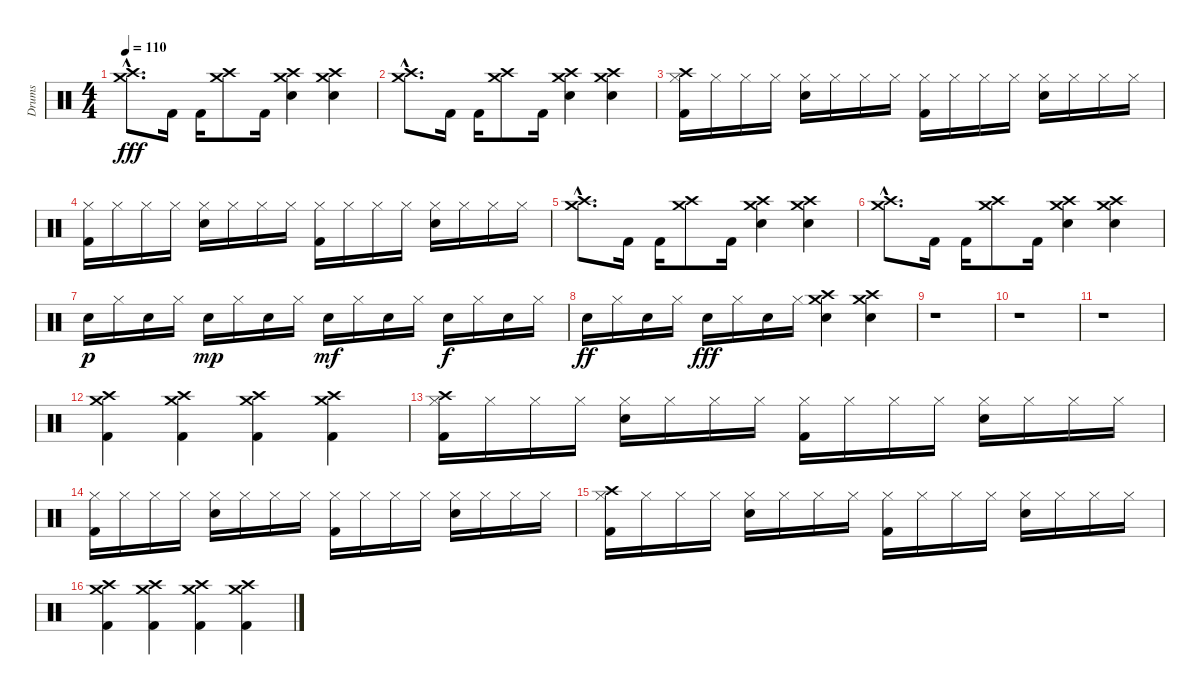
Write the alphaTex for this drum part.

\track ("Drums" "Drums") {instrument percussion}
\staff {score}
\articulation defaults
\ts (4 4)
\tempo 110
\clef neutral
\ks c
("Crash high (hit)"{hac} "Crash medium (hit)"{hac}).8{d dy fff} "Kick (hit) 2".16 "Kick (hit) 2".16 ("Crash high (hit)" "Crash medium (hit)").8 "Kick (hit) 2".16 ("Crash high (hit)" "Crash medium (hit)" "Electric Snare (hit)").4 ("Crash high (hit)" "Crash medium (hit)" "Electric Snare (hit)").4 |
("Crash high (hit)"{hac} "Crash medium (hit)"{hac}).8{d} "Kick (hit) 2".16 "Kick (hit) 2".16 ("Crash high (hit)" "Crash medium (hit)").8 "Kick (hit) 2".16 ("Crash high (hit)" "Crash medium (hit)" "Electric Snare (hit)").4 ("Crash high (hit)" "Crash medium (hit)" "Electric Snare (hit)").4 |
("Crash high (hit)" "Hi-Hat (closed)" "Kick (hit) 2").16 "Hi-Hat (closed)".16 "Hi-Hat (closed)".16 "Hi-Hat (closed)".16 ("Hi-Hat (closed)" "Electric Snare (hit)").16 "Hi-Hat (closed)".16 "Hi-Hat (closed)".16 "Hi-Hat (closed)".16 ("Hi-Hat (closed)" "Kick (hit) 2").16 "Hi-Hat (closed)".16 "Hi-Hat (closed)".16 "Hi-Hat (closed)".16 ("Hi-Hat (closed)" "Electric Snare (hit)").16 "Hi-Hat (closed)".16 "Hi-Hat (closed)".16 "Hi-Hat (closed)".16 |
("Hi-Hat (closed)" "Kick (hit) 2").16 "Hi-Hat (closed)".16 "Hi-Hat (closed)".16 "Hi-Hat (closed)".16 ("Hi-Hat (closed)" "Electric Snare (hit)").16 "Hi-Hat (closed)".16 "Hi-Hat (closed)".16 "Hi-Hat (closed)".16 ("Hi-Hat (closed)" "Kick (hit) 2").16 "Hi-Hat (closed)".16 "Hi-Hat (closed)".16 "Hi-Hat (closed)".16 ("Hi-Hat (closed)" "Electric Snare (hit)").16 "Hi-Hat (closed)".16 "Hi-Hat (closed)".16 "Hi-Hat (closed)".16 |
("Crash high (hit)"{hac} "Crash medium (hit)"{hac}).8{d} "Kick (hit) 2".16 "Kick (hit) 2".16 ("Crash high (hit)" "Crash medium (hit)").8 "Kick (hit) 2".16 ("Crash high (hit)" "Crash medium (hit)" "Electric Snare (hit)").4 ("Crash high (hit)" "Crash medium (hit)" "Electric Snare (hit)").4 |
("Crash high (hit)"{hac} "Crash medium (hit)"{hac}).8{d} "Kick (hit) 2".16 "Kick (hit) 2".16 ("Crash high (hit)" "Crash medium (hit)").8 "Kick (hit) 2".16 ("Crash high (hit)" "Crash medium (hit)" "Electric Snare (hit)").4 ("Crash high (hit)" "Crash medium (hit)" "Electric Snare (hit)").4 |
"Electric Snare (hit)".16{dy p} "Hi-Hat (closed)".16 "Electric Snare (hit)".16 "Hi-Hat (closed)".16 "Electric Snare (hit)".16{dy mp} "Hi-Hat (closed)".16 "Electric Snare (hit)".16 "Hi-Hat (closed)".16 "Electric Snare (hit)".16{dy mf} "Hi-Hat (closed)".16 "Electric Snare (hit)".16 "Hi-Hat (closed)".16 "Electric Snare (hit)".16{dy f} "Hi-Hat (closed)".16 "Electric Snare (hit)".16 "Hi-Hat (closed)".16 |
"Electric Snare (hit)".16{dy ff} "Hi-Hat (closed)".16 "Electric Snare (hit)".16 "Hi-Hat (closed)".16 "Electric Snare (hit)".16{dy fff} "Hi-Hat (closed)".16 "Electric Snare (hit)".16 "Hi-Hat (closed)".16 ("Crash high (hit)" "Crash medium (hit)" "Electric Snare (hit)").4 ("Crash high (hit)" "Crash medium (hit)" "Electric Snare (hit)").4 |
r.1 |
r.1 |
r.1 |
("Crash high (hit)" "Crash medium (hit)" "Kick (hit) 2").4 ("Crash high (hit)" "Crash medium (hit)" "Kick (hit) 2").4 ("Crash high (hit)" "Crash medium (hit)" "Kick (hit) 2").4 ("Crash high (hit)" "Crash medium (hit)" "Kick (hit) 2").4 |
("Crash high (hit)" "Hi-Hat (closed)" "Kick (hit) 2").16 "Hi-Hat (closed)".16 "Hi-Hat (closed)".16 "Hi-Hat (closed)".16 ("Hi-Hat (closed)" "Electric Snare (hit)").16 "Hi-Hat (closed)".16 "Hi-Hat (closed)".16 "Hi-Hat (closed)".16 ("Hi-Hat (closed)" "Kick (hit) 2").16 "Hi-Hat (closed)".16 "Hi-Hat (closed)".16 "Hi-Hat (closed)".16 ("Hi-Hat (closed)" "Electric Snare (hit)").16 "Hi-Hat (closed)".16 "Hi-Hat (closed)".16 "Hi-Hat (closed)".16 |
("Hi-Hat (closed)" "Kick (hit) 2").16 "Hi-Hat (closed)".16 "Hi-Hat (closed)".16 "Hi-Hat (closed)".16 ("Hi-Hat (closed)" "Electric Snare (hit)").16 "Hi-Hat (closed)".16 "Hi-Hat (closed)".16 "Hi-Hat (closed)".16 ("Hi-Hat (closed)" "Kick (hit) 2").16 "Hi-Hat (closed)".16 "Hi-Hat (closed)".16 "Hi-Hat (closed)".16 ("Hi-Hat (closed)" "Electric Snare (hit)").16 "Hi-Hat (closed)".16 "Hi-Hat (closed)".16 "Hi-Hat (closed)".16 |
("Crash high (hit)" "Hi-Hat (closed)" "Kick (hit) 2").16 "Hi-Hat (closed)".16 "Hi-Hat (closed)".16 "Hi-Hat (closed)".16 ("Hi-Hat (closed)" "Electric Snare (hit)").16 "Hi-Hat (closed)".16 "Hi-Hat (closed)".16 "Hi-Hat (closed)".16 ("Hi-Hat (closed)" "Kick (hit) 2").16 "Hi-Hat (closed)".16 "Hi-Hat (closed)".16 "Hi-Hat (closed)".16 ("Hi-Hat (closed)" "Electric Snare (hit)").16 "Hi-Hat (closed)".16 "Hi-Hat (closed)".16 "Hi-Hat (closed)".16 |
("Crash high (hit)" "Crash medium (hit)" "Kick (hit) 2").4 ("Crash high (hit)" "Crash medium (hit)" "Kick (hit) 2").4 ("Crash high (hit)" "Crash medium (hit)" "Kick (hit) 2").4 ("Crash high (hit)" "Crash medium (hit)" "Kick (hit) 2").4
